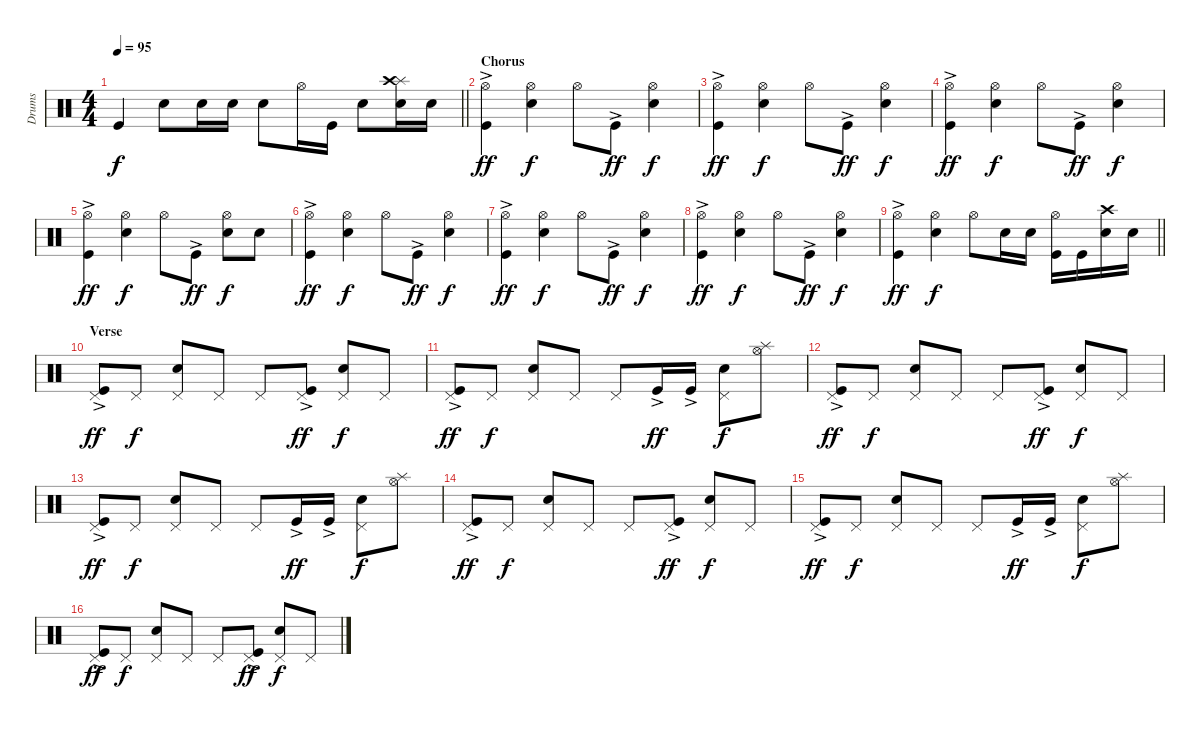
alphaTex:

\track ("Drums" "Drums") {instrument percussion}
\staff {score}
\articulation defaults
\ts (4 4)
\tempo 95
\clef neutral
\barLineRight lightlight
\ks c "Kick (hit)".4{dy f} "Snare (hit) 2".8 "Snare (hit) 2".16 "Snare (hit) 2".16 "Snare (hit) 2".8 "Hi-Hat (open)".16 "Kick (hit)".16 "Snare (hit) 2".8
("Snare (hit) 2" "Splash (hit)" "Crash high (hit)").16 "Snare (hit) 2".16 |
\section ("" "Chorus")
("Kick (hit)"{ac} "Hi-Hat (open)").4{dy ff} ("Snare (hit) 2" "Hi-Hat (open)").4{dy f} "Hi-Hat (open)".8 "Kick (hit)"{ac}.8{dy ff} ("Hi-Hat (open)" "Snare (hit) 2").4{dy f} |
("Kick (hit)"{ac} "Hi-Hat (open)").4{dy ff} ("Snare (hit) 2" "Hi-Hat (open)").4{dy f} "Hi-Hat (open)".8 "Kick (hit)"{ac}.8{dy ff} ("Hi-Hat (open)" "Snare (hit) 2").4{dy f} |
("Kick (hit)"{ac} "Hi-Hat (open)").4{dy ff} ("Snare (hit) 2" "Hi-Hat (open)").4{dy f} "Hi-Hat (open)".8 "Kick (hit)"{ac}.8{dy ff} ("Hi-Hat (open)" "Snare (hit) 2").4{dy f} |
("Kick (hit)"{ac} "Hi-Hat (open)").4{dy ff} ("Snare (hit) 2" "Hi-Hat (open)").4{dy f} "Hi-Hat (open)".8 "Kick (hit)"{ac}.8{dy ff} ("Hi-Hat (open)" "Snare (hit) 2").8{dy f} "Snare (hit) 2".8 |
("Kick (hit)"{ac} "Hi-Hat (open)").4{dy ff} ("Snare (hit) 2" "Hi-Hat (open)").4{dy f} "Hi-Hat (open)".8 "Kick (hit)"{ac}.8{dy ff} ("Hi-Hat (open)" "Snare (hit) 2").4{dy f} |
("Kick (hit)"{ac} "Hi-Hat (open)").4{dy ff} ("Snare (hit) 2" "Hi-Hat (open)").4{dy f} "Hi-Hat (open)".8 "Kick (hit)"{ac}.8{dy ff} ("Hi-Hat (open)" "Snare (hit) 2").4{dy f} |
("Kick (hit)"{ac} "Hi-Hat (open)").4{dy ff} ("Snare (hit) 2" "Hi-Hat (open)").4{dy f} "Hi-Hat (open)".8 "Kick (hit)"{ac}.8{dy ff} ("Hi-Hat (open)" "Snare (hit) 2").4{dy f} |
\barLineRight lightlight
("Kick (hit)"{ac} "Hi-Hat (open)").4{dy ff} ("Snare (hit) 2" "Hi-Hat (open)").4{dy f} "Hi-Hat (open)".8 "Snare (hit) 2".16 "Snare (hit) 2".16 ("Kick (hit)" "Hi-Hat (open)").16 "Kick (hit)".16 ("Snare (hit) 2" "Crash high (hit)").16 "Snare (hit) 2".16 |
\section ("" "Verse")
("Pedal Hi-Hat (hit)" "Kick (hit)"{ac}).8{dy ff volume 16} "Pedal Hi-Hat (hit)".8{dy f} ("Snare (hit) 2" "Pedal Hi-Hat (hit)").8 "Pedal Hi-Hat (hit)".8 "Pedal Hi-Hat (hit)".8 ("Kick (hit)"{ac} "Pedal Hi-Hat (hit)").8{dy ff} ("Snare (hit) 2" "Pedal Hi-Hat (hit)").8{dy f} "Pedal Hi-Hat (hit)".8 |
("Kick (hit)"{ac} "Pedal Hi-Hat (hit)").8{dy ff} "Pedal Hi-Hat (hit)".8{dy f} ("Snare (hit) 2" "Pedal Hi-Hat (hit)").8 "Pedal Hi-Hat (hit)".8 "Pedal Hi-Hat (hit)".8 "Kick (hit)"{ac}.16{dy ff} "Kick (hit)"{ac}.16 ("Snare (hit) 2" "Pedal Hi-Hat (hit)").8{dy f} ("Hi-Hat (open)" "Splash (hit)").8 |
("Pedal Hi-Hat (hit)" "Kick (hit)"{ac}).8{dy ff} "Pedal Hi-Hat (hit)".8{dy f} ("Snare (hit) 2" "Pedal Hi-Hat (hit)").8 "Pedal Hi-Hat (hit)".8 "Pedal Hi-Hat (hit)".8 ("Kick (hit)"{ac} "Pedal Hi-Hat (hit)").8{dy ff} ("Snare (hit) 2" "Pedal Hi-Hat (hit)").8{dy f} "Pedal Hi-Hat (hit)".8 |
("Kick (hit)"{ac} "Pedal Hi-Hat (hit)").8{dy ff} "Pedal Hi-Hat (hit)".8{dy f} ("Snare (hit) 2" "Pedal Hi-Hat (hit)").8 "Pedal Hi-Hat (hit)".8 "Pedal Hi-Hat (hit)".8 "Kick (hit)"{ac}.16{dy ff} "Kick (hit)"{ac}.16 ("Snare (hit) 2" "Pedal Hi-Hat (hit)").8{dy f} ("Hi-Hat (open)" "Splash (hit)").8 |
("Pedal Hi-Hat (hit)" "Kick (hit)"{ac}).8{dy ff} "Pedal Hi-Hat (hit)".8{dy f} ("Snare (hit) 2" "Pedal Hi-Hat (hit)").8 "Pedal Hi-Hat (hit)".8 "Pedal Hi-Hat (hit)".8 ("Kick (hit)"{ac} "Pedal Hi-Hat (hit)").8{dy ff} ("Snare (hit) 2" "Pedal Hi-Hat (hit)").8{dy f} "Pedal Hi-Hat (hit)".8 |
("Kick (hit)"{ac} "Pedal Hi-Hat (hit)").8{dy ff} "Pedal Hi-Hat (hit)".8{dy f} ("Snare (hit) 2" "Pedal Hi-Hat (hit)").8 "Pedal Hi-Hat (hit)".8 "Pedal Hi-Hat (hit)".8 "Kick (hit)"{ac}.16{dy ff} "Kick (hit)"{ac}.16 ("Snare (hit) 2" "Pedal Hi-Hat (hit)").8{dy f} ("Hi-Hat (open)" "Splash (hit)").8 |
("Pedal Hi-Hat (hit)" "Kick (hit)"{ac}).8{dy ff} "Pedal Hi-Hat (hit)".8{dy f} ("Snare (hit) 2" "Pedal Hi-Hat (hit)").8 "Pedal Hi-Hat (hit)".8 "Pedal Hi-Hat (hit)".8 ("Kick (hit)"{ac} "Pedal Hi-Hat (hit)").8{dy ff} ("Snare (hit) 2" "Pedal Hi-Hat (hit)").8{dy f} "Pedal Hi-Hat (hit)".8
